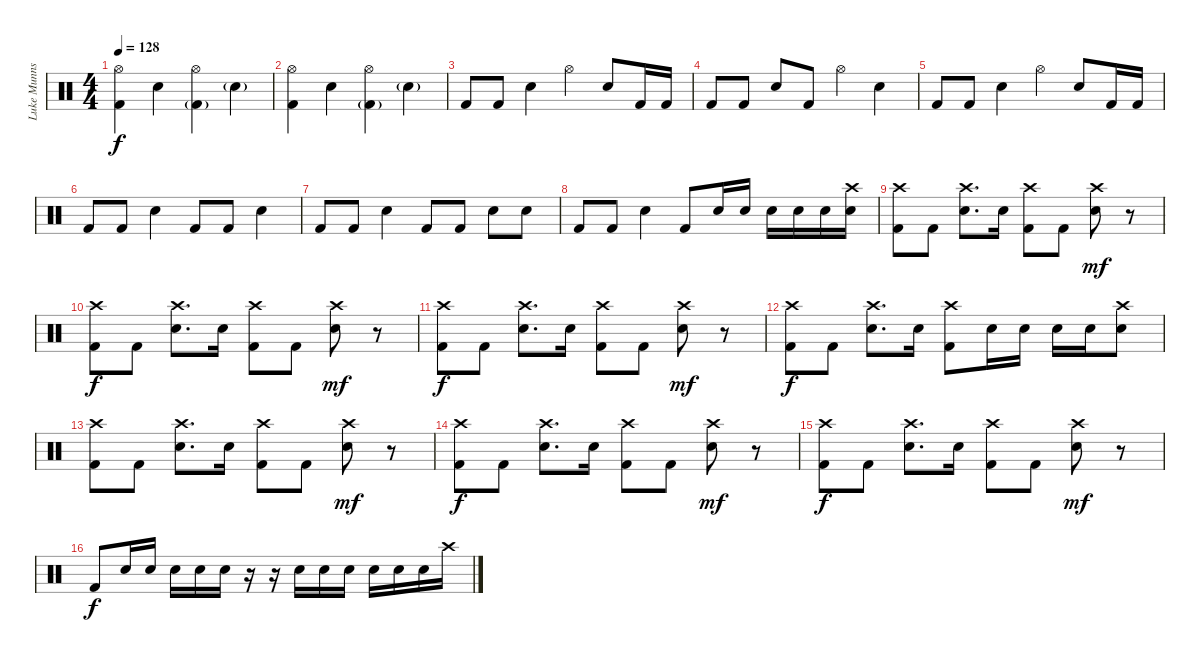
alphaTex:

\track ("Luke Munns" "Luke Munns") {instrument percussion}
\staff {score}
\articulation defaults
\ts (4 4)
\tempo 128
\clef neutral
\ks c
("Kick (hit) 2" "Hi-Hat (open)").4{dy f} "Electric Snare (hit)".4 ("Kick (hit) 2"{g} "Hi-Hat (open)").4 "Electric Snare (hit)"{g}.4 |
("Kick (hit) 2" "Hi-Hat (open)").4 "Electric Snare (hit)".4 ("Kick (hit) 2"{g} "Hi-Hat (open)").4 "Electric Snare (hit)"{g}.4 |
"Kick (hit) 2".8 "Kick (hit) 2".8 "Electric Snare (hit)".4 "Hi-Hat (open)".4 "Electric Snare (hit)".8 "Kick (hit) 2".16 "Kick (hit) 2".16 |
"Kick (hit) 2".8 "Kick (hit) 2".8 "Electric Snare (hit)".8 "Kick (hit) 2".8 "Hi-Hat (open)".4 "Electric Snare (hit)".4 |
"Kick (hit) 2".8 "Kick (hit) 2".8 "Electric Snare (hit)".4 "Hi-Hat (open)".4 "Electric Snare (hit)".8 "Kick (hit) 2".16 "Kick (hit) 2".16 |
"Kick (hit) 2".8 "Kick (hit) 2".8 "Electric Snare (hit)".4 "Kick (hit) 2".8 "Kick (hit) 2".8 "Electric Snare (hit)".4 |
"Kick (hit) 2".8 "Kick (hit) 2".8 "Electric Snare (hit)".4 "Kick (hit) 2".8 "Kick (hit) 2".8 "Electric Snare (hit)".8 "Electric Snare (hit)".8 |
"Kick (hit) 2".8 "Kick (hit) 2".8 "Electric Snare (hit)".4 "Kick (hit) 2".8 "Electric Snare (hit)".16 "Electric Snare (hit)".16 "Electric Snare (hit)".16 "Electric Snare (hit)".16 "Electric Snare (hit)".16 ("Electric Snare (hit)" "Crash high (hit)").16 |
("Kick (hit) 2" "Crash high (hit)").8 "Kick (hit) 2".8 ("Electric Snare (hit)" "Crash high (hit)").8{d} "Electric Snare (hit)".16 ("Kick (hit) 2" "Crash high (hit)").8 "Kick (hit) 2".8 ("Electric Snare (hit)" "Crash high (hit)").8{dy mf} r.8 |
("Kick (hit) 2" "Crash high (hit)").8{dy f} "Kick (hit) 2".8 ("Electric Snare (hit)" "Crash high (hit)").8{d} "Electric Snare (hit)".16 ("Kick (hit) 2" "Crash high (hit)").8 "Kick (hit) 2".8 ("Electric Snare (hit)" "Crash high (hit)").8{dy mf} r.8 |
("Kick (hit) 2" "Crash high (hit)").8{dy f} "Kick (hit) 2".8 ("Electric Snare (hit)" "Crash high (hit)").8{d} "Electric Snare (hit)".16 ("Kick (hit) 2" "Crash high (hit)").8 "Kick (hit) 2".8 ("Electric Snare (hit)" "Crash high (hit)").8{dy mf} r.8 |
("Kick (hit) 2" "Crash high (hit)").8{dy f} "Kick (hit) 2".8 ("Electric Snare (hit)" "Crash high (hit)").8{d} "Electric Snare (hit)".16 ("Kick (hit) 2" "Crash high (hit)").8 "Electric Snare (hit)".16 "Electric Snare (hit)".16 "Electric Snare (hit)".16 "Electric Snare (hit)".16 ("Electric Snare (hit)" "Crash high (hit)").8 |
("Kick (hit) 2" "Crash high (hit)").8 "Kick (hit) 2".8 ("Electric Snare (hit)" "Crash high (hit)").8{d} "Electric Snare (hit)".16 ("Kick (hit) 2" "Crash high (hit)").8 "Kick (hit) 2".8 ("Electric Snare (hit)" "Crash high (hit)").8{dy mf} r.8 |
("Kick (hit) 2" "Crash high (hit)").8{dy f} "Kick (hit) 2".8 ("Electric Snare (hit)" "Crash high (hit)").8{d} "Electric Snare (hit)".16 ("Kick (hit) 2" "Crash high (hit)").8 "Kick (hit) 2".8 ("Electric Snare (hit)" "Crash high (hit)").8{dy mf} r.8 |
("Kick (hit) 2" "Crash high (hit)").8{dy f} "Kick (hit) 2".8 ("Electric Snare (hit)" "Crash high (hit)").8{d} "Electric Snare (hit)".16 ("Kick (hit) 2" "Crash high (hit)").8 "Kick (hit) 2".8 ("Electric Snare (hit)" "Crash high (hit)").8{dy mf} r.8 |
"Kick (hit) 2".8{dy f} "Electric Snare (hit)".16 "Electric Snare (hit)".16 "Electric Snare (hit)".16 "Electric Snare (hit)".16 "Electric Snare (hit)".16 r.16 r.16 "Electric Snare (hit)".16 "Electric Snare (hit)".16 "Electric Snare (hit)".16 "Electric Snare (hit)".16 "Electric Snare (hit)".16 "Electric Snare (hit)".16 "Crash high (hit)".16
